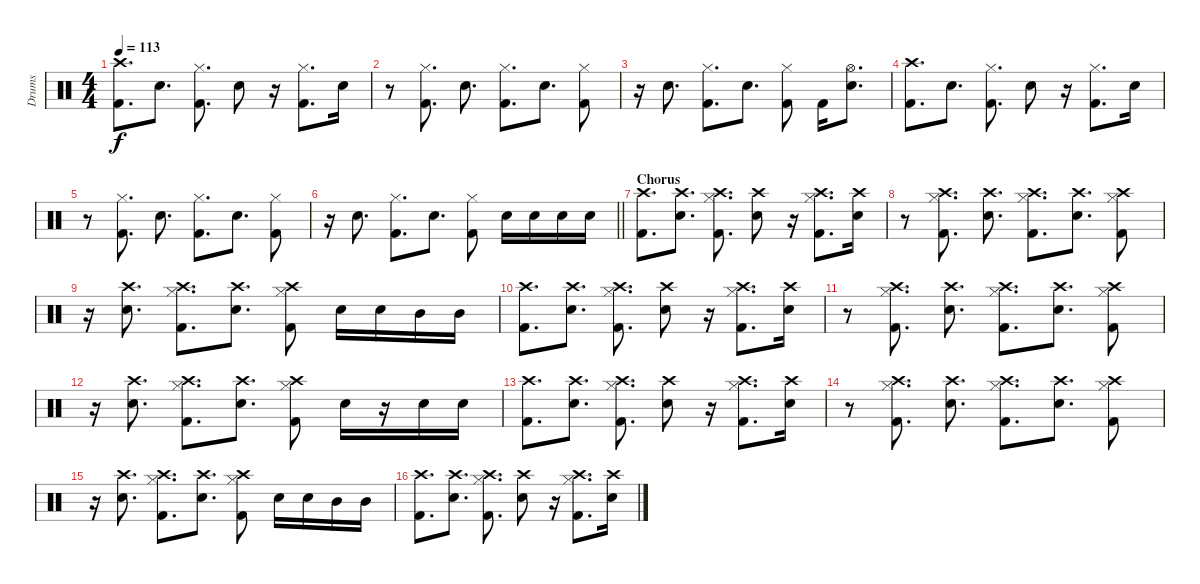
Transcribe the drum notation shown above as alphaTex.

\track ("Drums" "Drums") {instrument percussion}
\staff {score}
\articulation defaults
\ts (4 4)
\tempo 113
\clef neutral
\ks c
("Crash high (hit)" "Kick (hit) 2").8{d dy f} "Electric Snare (hit)".8{d} ("Hi-Hat (closed)" "Kick (hit) 2").8{d} "Electric Snare (hit)".8 r.16 ("Hi-Hat (closed)" "Kick (hit) 2").8{d} "Electric Snare (hit)".16 |
r.8 ("Hi-Hat (closed)" "Kick (hit) 2").8{d} "Electric Snare (hit)".8{d} ("Hi-Hat (closed)" "Kick (hit) 2").8{d} "Electric Snare (hit)".8{d} ("Hi-Hat (closed)" "Kick (hit) 2").8 |
r.16 "Electric Snare (hit)".8{d} ("Hi-Hat (closed)" "Kick (hit) 2").8{d} "Electric Snare (hit)".8{d} ("Hi-Hat (closed)" "Kick (hit) 2").8 "Kick (hit) 2".16 ("Hi-Hat (open)" "Electric Snare (hit)").8{d} |
("Crash high (hit)" "Kick (hit) 2").8{d} "Electric Snare (hit)".8{d} ("Hi-Hat (closed)" "Kick (hit) 2").8{d} "Electric Snare (hit)".8 r.16 ("Hi-Hat (closed)" "Kick (hit) 2").8{d} "Electric Snare (hit)".16 |
r.8 ("Hi-Hat (closed)" "Kick (hit) 2").8{d} "Electric Snare (hit)".8{d} ("Hi-Hat (closed)" "Kick (hit) 2").8{d} "Electric Snare (hit)".8{d} ("Hi-Hat (closed)" "Kick (hit) 2").8 |
\barLineRight lightlight
r.16 "Electric Snare (hit)".8{d} ("Hi-Hat (closed)" "Kick (hit) 2").8{d} "Electric Snare (hit)".8{d} ("Hi-Hat (closed)" "Kick (hit) 2").8 "Electric Snare (hit)".16 "Electric Snare (hit)".16 "Electric Snare (hit)".16 "Electric Snare (hit)".16 |
\section ("" "Chorus")
("Crash high (hit)" "Kick (hit) 2").8{d} ("Crash high (hit)" "Electric Snare (hit)").8{d} ("Crash high (hit)" "Hi-Hat (closed)" "Kick (hit) 2").8{d} ("Crash high (hit)" "Electric Snare (hit)").8 r.16 ("Crash high (hit)" "Hi-Hat (closed)" "Kick (hit) 2").8{d} ("Crash high (hit)" "Electric Snare (hit)").16 |
r.8 ("Crash high (hit)" "Hi-Hat (closed)" "Kick (hit) 2").8{d} ("Crash high (hit)" "Electric Snare (hit)").8{d} ("Crash high (hit)" "Hi-Hat (closed)" "Kick (hit) 2").8{d} ("Crash high (hit)" "Electric Snare (hit)").8{d} ("Crash high (hit)" "Hi-Hat (closed)" "Kick (hit) 2").8 |
r.16 ("Crash high (hit)" "Electric Snare (hit)").8{d} ("Crash high (hit)" "Hi-Hat (closed)" "Kick (hit) 2").8{d} ("Crash high (hit)" "Electric Snare (hit)").8{d} ("Crash high (hit)" "Hi-Hat (closed)" "Kick (hit) 2").8 "Electric Snare (hit)".16 "Electric Snare (hit)".16 "Mid Tom (hit)".16 "Mid Tom (hit)".16 |
("Crash high (hit)" "Kick (hit) 2").8{d} ("Crash high (hit)" "Electric Snare (hit)").8{d} ("Crash high (hit)" "Hi-Hat (closed)" "Kick (hit) 2").8{d} ("Crash high (hit)" "Electric Snare (hit)").8 r.16 ("Crash high (hit)" "Hi-Hat (closed)" "Kick (hit) 2").8{d} ("Crash high (hit)" "Electric Snare (hit)").16 |
r.8 ("Crash high (hit)" "Hi-Hat (closed)" "Kick (hit) 2").8{d} ("Crash high (hit)" "Electric Snare (hit)").8{d} ("Crash high (hit)" "Hi-Hat (closed)" "Kick (hit) 2").8{d} ("Crash high (hit)" "Electric Snare (hit)").8{d} ("Crash high (hit)" "Hi-Hat (closed)" "Kick (hit) 2").8 |
r.16 ("Crash high (hit)" "Electric Snare (hit)").8{d} ("Crash high (hit)" "Hi-Hat (closed)" "Kick (hit) 2").8{d} ("Crash high (hit)" "Electric Snare (hit)").8{d} ("Crash high (hit)" "Hi-Hat (closed)" "Kick (hit) 2").8 "Electric Snare (hit)".16 r.16 "Electric Snare (hit)".16 "Electric Snare (hit)".16 |
("Crash high (hit)" "Kick (hit) 2").8{d} ("Crash high (hit)" "Electric Snare (hit)").8{d} ("Crash high (hit)" "Hi-Hat (closed)" "Kick (hit) 2").8{d} ("Crash high (hit)" "Electric Snare (hit)").8 r.16 ("Crash high (hit)" "Hi-Hat (closed)" "Kick (hit) 2").8{d} ("Crash high (hit)" "Electric Snare (hit)").16 |
r.8 ("Crash high (hit)" "Hi-Hat (closed)" "Kick (hit) 2").8{d} ("Crash high (hit)" "Electric Snare (hit)").8{d} ("Crash high (hit)" "Hi-Hat (closed)" "Kick (hit) 2").8{d} ("Crash high (hit)" "Electric Snare (hit)").8{d} ("Crash high (hit)" "Hi-Hat (closed)" "Kick (hit) 2").8 |
r.16 ("Crash high (hit)" "Electric Snare (hit)").8{d} ("Crash high (hit)" "Hi-Hat (closed)" "Kick (hit) 2").8{d} ("Crash high (hit)" "Electric Snare (hit)").8{d} ("Crash high (hit)" "Hi-Hat (closed)" "Kick (hit) 2").8 "Electric Snare (hit)".16 "Electric Snare (hit)".16 "Mid Tom (hit)".16 "Mid Tom (hit)".16 |
("Crash high (hit)" "Kick (hit) 2").8{d} ("Crash high (hit)" "Electric Snare (hit)").8{d} ("Crash high (hit)" "Hi-Hat (closed)" "Kick (hit) 2").8{d} ("Crash high (hit)" "Electric Snare (hit)").8 r.16 ("Crash high (hit)" "Hi-Hat (closed)" "Kick (hit) 2").8{d} ("Crash high (hit)" "Electric Snare (hit)").16
